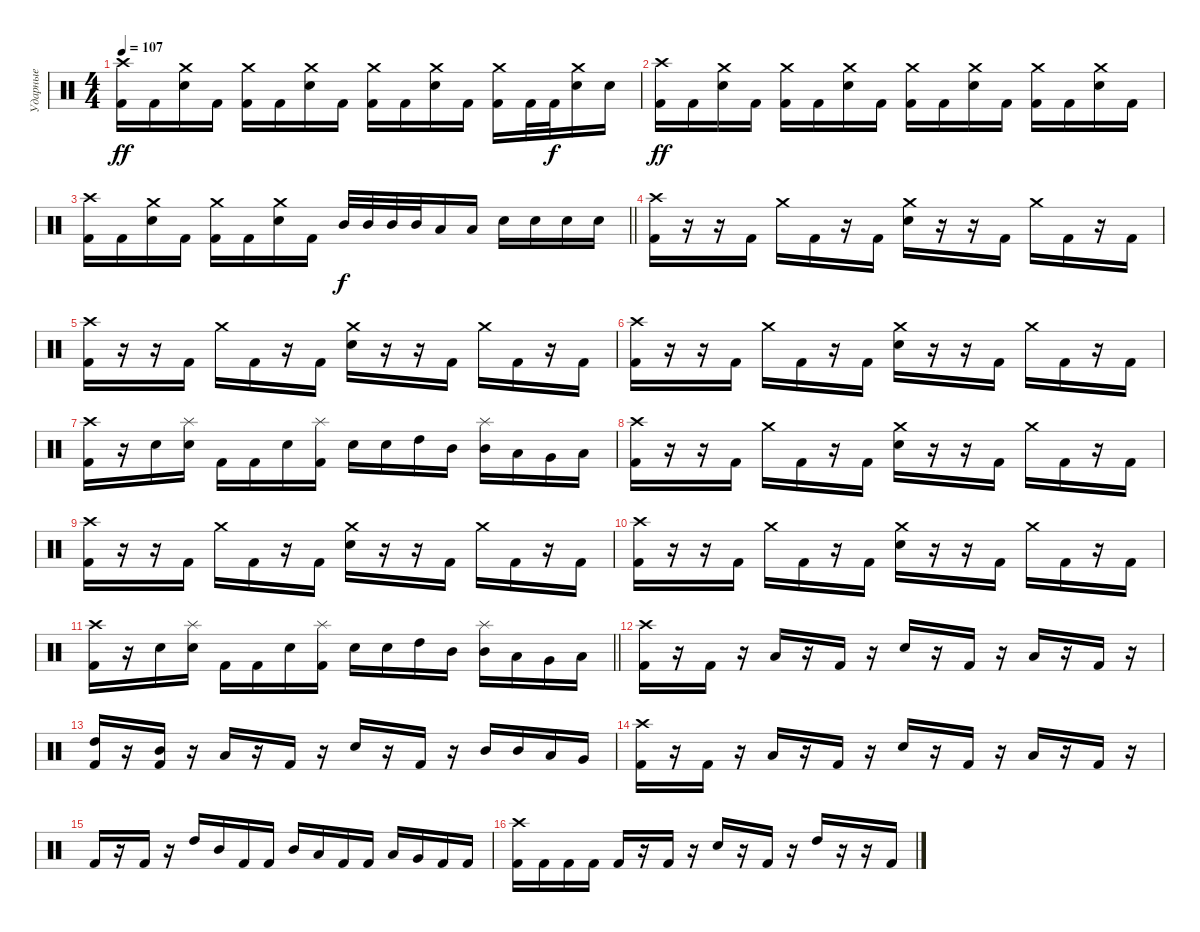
\track ("Ударные" "Ударные") {instrument percussion}
\staff {score}
\articulation defaults
\ts (4 4)
\tempo 107
\clef neutral
\ks c
("Kick (hit) 2" "Crash high (hit)").16{dy ff} "Kick (hit) 2".16 ("Electric Snare (hit)" "Crash medium (hit)").16 "Kick (hit) 2".16 ("Kick (hit) 2" "Crash medium (hit)").16 "Kick (hit) 2".16 ("Electric Snare (hit)" "Crash medium (hit)").16 "Kick (hit) 2".16 ("Kick (hit) 2" "Crash medium (hit)").16 "Kick (hit) 2".16 ("Electric Snare (hit)" "Crash medium (hit)").16 "Kick (hit) 2".16 ("Kick (hit) 2" "Crash medium (hit)").16 "Kick (hit) 2".32 "Kick (hit) 2".32{dy f} ("Electric Snare (hit)" "Crash medium (hit)").16 "Electric Snare (hit)".16 |
("Kick (hit) 2" "Crash high (hit)").16{dy ff} "Kick (hit) 2".16 ("Electric Snare (hit)" "Crash medium (hit)").16 "Kick (hit) 2".16 ("Kick (hit) 2" "Crash medium (hit)").16 "Kick (hit) 2".16 ("Electric Snare (hit)" "Crash medium (hit)").16 "Kick (hit) 2".16 ("Kick (hit) 2" "Crash medium (hit)").16 "Kick (hit) 2".16 ("Electric Snare (hit)" "Crash medium (hit)").16 "Kick (hit) 2".16 ("Kick (hit) 2" "Crash medium (hit)").16 "Kick (hit) 2".16 ("Electric Snare (hit)" "Crash medium (hit)").16 "Kick (hit) 2".16 |
\barLineRight lightlight
("Kick (hit) 2" "Crash high (hit)").16 "Kick (hit) 2".16 ("Electric Snare (hit)" "Crash medium (hit)").16 "Kick (hit) 2".16 ("Kick (hit) 2" "Crash medium (hit)").16 "Kick (hit) 2".16 ("Electric Snare (hit)" "Crash medium (hit)").16 "Kick (hit) 2".16 "Mid Tom (hit)".32{dy f} "Mid Tom (hit)".32 "Mid Tom (hit)".32 "Mid Tom (hit)".32 "Low Tom (hit)".16 "Low Tom (hit)".16 "Electric Snare (hit)".16 "Electric Snare (hit)".16 "Electric Snare (hit)".16 "Electric Snare (hit)".16 |
\section ("" "")
("Kick (hit) 2" "Crash high (hit)").16 r.16 r.16 "Kick (hit) 2".16 "Crash medium (hit)".16 "Kick (hit) 2".16 r.16 "Kick (hit) 2".16 ("Electric Snare (hit)" "Crash medium (hit)").16 r.16 r.16 "Kick (hit) 2".16 "Crash medium (hit)".16 "Kick (hit) 2".16 r.16 "Kick (hit) 2".16 |
("Kick (hit) 2" "Crash high (hit)").16 r.16 r.16 "Kick (hit) 2".16 "Crash medium (hit)".16 "Kick (hit) 2".16 r.16 "Kick (hit) 2".16 ("Electric Snare (hit)" "Crash medium (hit)").16 r.16 r.16 "Kick (hit) 2".16 "Crash medium (hit)".16 "Kick (hit) 2".16 r.16 "Kick (hit) 2".16 |
("Kick (hit) 2" "Crash high (hit)").16 r.16 r.16 "Kick (hit) 2".16 "Crash medium (hit)".16 "Kick (hit) 2".16 r.16 "Kick (hit) 2".16 ("Electric Snare (hit)" "Crash medium (hit)").16 r.16 r.16 "Kick (hit) 2".16 "Crash medium (hit)".16 "Kick (hit) 2".16 r.16 "Kick (hit) 2".16 |
("Kick (hit) 2" "Crash high (hit)").16 r.16 "Electric Snare (hit)".16 ("Electric Snare (hit)" "Splash (hit)").16 "Kick (hit) 2".16 "Kick (hit) 2".16 "Electric Snare (hit)".16 ("Kick (hit) 2" "Splash (hit)").16 "Electric Snare (hit)".16 "Electric Snare (hit)".16 "High Tom (hit)".16 "Mid Tom (hit)".16 ("Mid Tom (hit)" "Splash (hit)").16 "Low Tom (hit)".16 "Very Low Tom (hit)".16 "Low Floor Tom (hit)".16 |
("Kick (hit) 2" "Crash high (hit)").16 r.16 r.16 "Kick (hit) 2".16 "Crash medium (hit)".16 "Kick (hit) 2".16 r.16 "Kick (hit) 2".16 ("Electric Snare (hit)" "Crash medium (hit)").16 r.16 r.16 "Kick (hit) 2".16 "Crash medium (hit)".16 "Kick (hit) 2".16 r.16 "Kick (hit) 2".16 |
("Kick (hit) 2" "Crash high (hit)").16 r.16 r.16 "Kick (hit) 2".16 "Crash medium (hit)".16 "Kick (hit) 2".16 r.16 "Kick (hit) 2".16 ("Electric Snare (hit)" "Crash medium (hit)").16 r.16 r.16 "Kick (hit) 2".16 "Crash medium (hit)".16 "Kick (hit) 2".16 r.16 "Kick (hit) 2".16 |
("Kick (hit) 2" "Crash high (hit)").16 r.16 r.16 "Kick (hit) 2".16 "Crash medium (hit)".16 "Kick (hit) 2".16 r.16 "Kick (hit) 2".16 ("Electric Snare (hit)" "Crash medium (hit)").16 r.16 r.16 "Kick (hit) 2".16 "Crash medium (hit)".16 "Kick (hit) 2".16 r.16 "Kick (hit) 2".16 |
\barLineRight lightlight
("Kick (hit) 2" "Crash high (hit)").16 r.16 "Electric Snare (hit)".16 ("Electric Snare (hit)" "Splash (hit)").16 "Kick (hit) 2".16 "Kick (hit) 2".16 "Electric Snare (hit)".16 ("Kick (hit) 2" "Splash (hit)").16 "Electric Snare (hit)".16 "Electric Snare (hit)".16 "High Tom (hit)".16 "Mid Tom (hit)".16 ("Mid Tom (hit)" "Splash (hit)").16 "Low Tom (hit)".16 "Very Low Tom (hit)".16 "Low Floor Tom (hit)".16 |
\section ("" "")
("Kick (hit) 2" "Crash high (hit)").16 r.16 "Kick (hit) 2".16 r.16 "Low Tom (hit)".16 r.16 "Kick (hit) 2".16 r.16 "Electric Snare (hit)".16 r.16 "Kick (hit) 2".16 r.16 "Low Tom (hit)".16 r.16 "Kick (hit) 2".16 r.16 |
("Kick (hit) 2" "High Tom (hit)").16 r.16 ("Kick (hit) 2" "Mid Tom (hit)").16 r.16 "Low Tom (hit)".16 r.16 "Kick (hit) 2".16 r.16 "Electric Snare (hit)".16 r.16 "Kick (hit) 2".16 r.16 "Mid Tom (hit)".16 "Mid Tom (hit)".16 "Low Tom (hit)".16 "Very Low Tom (hit)".16 |
("Kick (hit) 2" "Crash high (hit)").16 r.16 "Kick (hit) 2".16 r.16 "Low Tom (hit)".16 r.16 "Kick (hit) 2".16 r.16 "Electric Snare (hit)".16 r.16 "Kick (hit) 2".16 r.16 "Low Tom (hit)".16 r.16 "Kick (hit) 2".16 r.16 |
"Kick (hit) 2".16 r.16 "Kick (hit) 2".16 r.16 "High Tom (hit)".16 "Mid Tom (hit)".16 "Kick (hit) 2".16 "Kick (hit) 2".16 "Mid Tom (hit)".16 "Low Tom (hit)".16 "Kick (hit) 2".16 "Kick (hit) 2".16 "Low Tom (hit)".16 "Very Low Tom (hit)".16 "Kick (hit) 2".16 "Kick (hit) 2".16 |
("Kick (hit) 2" "Crash high (hit)").16 "Kick (hit) 2".16 "Kick (hit) 2".16 "Kick (hit) 2".16 "Kick (hit) 2".16 r.16 "Kick (hit) 2".16 r.16 "Electric Snare (hit)".16 r.16 "Kick (hit) 2".16 r.16 "High Tom (hit)".16 r.16 r.16 "Kick (hit) 2".16
